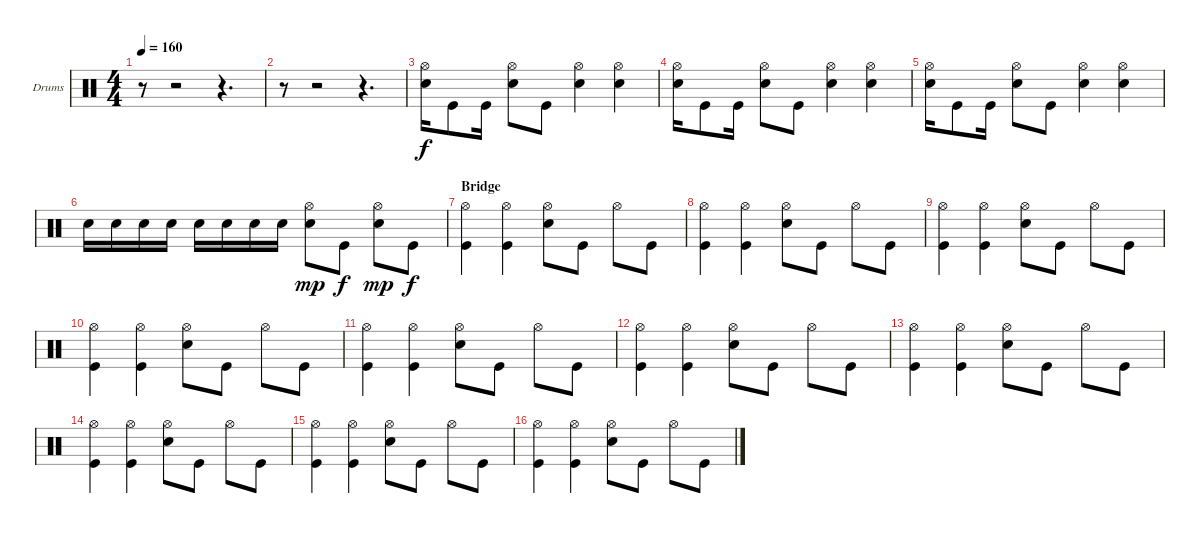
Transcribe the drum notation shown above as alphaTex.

\bracketExtendMode groupsimilarinstruments
\firstSystemTrackNameOrientation horizontal
\otherSystemsTrackNameOrientation horizontal
\track ("Lars Ulrich (Drum)" "Drums") {instrument percussion}
\staff {score}
\articulation defaults
\ts (4 4)
\tempo 160
\clef neutral
\ks c
r.8{dy f} r.2 r.4{d} |
r.8 r.2 r.4{d} |
("Hi-Hat (open)" "Snare (hit) 2").16 "Kick (hit)".8 "Kick (hit)".16 ("Hi-Hat (open)" "Snare (hit) 2").8 "Kick (hit)".8 ("Hi-Hat (open)" "Snare (hit) 2").4 ("Hi-Hat (open)" "Snare (hit) 2").4 |
("Hi-Hat (open)" "Snare (hit) 2").16 "Kick (hit)".8 "Kick (hit)".16 ("Hi-Hat (open)" "Snare (hit) 2").8 "Kick (hit)".8 ("Hi-Hat (open)" "Snare (hit) 2").4 ("Hi-Hat (open)" "Snare (hit) 2").4 |
("Hi-Hat (open)" "Snare (hit) 2").16 "Kick (hit)".8 "Kick (hit)".16 ("Hi-Hat (open)" "Snare (hit) 2").8 "Kick (hit)".8 ("Hi-Hat (open)" "Snare (hit) 2").4 ("Hi-Hat (open)" "Snare (hit) 2").4 |
"Snare (hit) 2".16 "Snare (hit) 2".16 "Snare (hit) 2".16 "Snare (hit) 2".16 "Snare (hit) 2".16 "Snare (hit) 2".16 "Snare (hit) 2".16 "Snare (hit) 2".16 ("Hi-Hat (open)" "Snare (hit) 2").8{dy mp} "Kick (hit)".8{dy f} ("Hi-Hat (open)" "Snare (hit) 2").8{dy mp} "Kick (hit)".8{dy f} |
\section ("" "Bridge")
("Hi-Hat (open)" "Kick (hit)").4 ("Hi-Hat (open)" "Kick (hit)").4 ("Hi-Hat (open)" "Snare (hit) 2").8 "Kick (hit)".8 "Hi-Hat (open)".8 "Kick (hit)".8 |
("Hi-Hat (open)" "Kick (hit)").4 ("Hi-Hat (open)" "Kick (hit)").4 ("Hi-Hat (open)" "Snare (hit) 2").8 "Kick (hit)".8 "Hi-Hat (open)".8 "Kick (hit)".8 |
("Hi-Hat (open)" "Kick (hit)").4 ("Hi-Hat (open)" "Kick (hit)").4 ("Hi-Hat (open)" "Snare (hit) 2").8 "Kick (hit)".8 "Hi-Hat (open)".8 "Kick (hit)".8 |
("Hi-Hat (open)" "Kick (hit)").4 ("Hi-Hat (open)" "Kick (hit)").4 ("Hi-Hat (open)" "Snare (hit) 2").8 "Kick (hit)".8 "Hi-Hat (open)".8 "Kick (hit)".8 |
("Hi-Hat (open)" "Kick (hit)").4 ("Hi-Hat (open)" "Kick (hit)").4 ("Hi-Hat (open)" "Snare (hit) 2").8 "Kick (hit)".8 "Hi-Hat (open)".8 "Kick (hit)".8 |
("Hi-Hat (open)" "Kick (hit)").4 ("Hi-Hat (open)" "Kick (hit)").4 ("Hi-Hat (open)" "Snare (hit) 2").8 "Kick (hit)".8 "Hi-Hat (open)".8 "Kick (hit)".8 |
("Hi-Hat (open)" "Kick (hit)").4 ("Hi-Hat (open)" "Kick (hit)").4 ("Hi-Hat (open)" "Snare (hit) 2").8 "Kick (hit)".8 "Hi-Hat (open)".8 "Kick (hit)".8 |
("Hi-Hat (open)" "Kick (hit)").4 ("Hi-Hat (open)" "Kick (hit)").4 ("Hi-Hat (open)" "Snare (hit) 2").8 "Kick (hit)".8 "Hi-Hat (open)".8 "Kick (hit)".8 |
("Hi-Hat (open)" "Kick (hit)").4 ("Hi-Hat (open)" "Kick (hit)").4 ("Hi-Hat (open)" "Snare (hit) 2").8 "Kick (hit)".8 "Hi-Hat (open)".8 "Kick (hit)".8 |
("Hi-Hat (open)" "Kick (hit)").4 ("Hi-Hat (open)" "Kick (hit)").4 ("Hi-Hat (open)" "Snare (hit) 2").8 "Kick (hit)".8 "Hi-Hat (open)".8 "Kick (hit)".8
